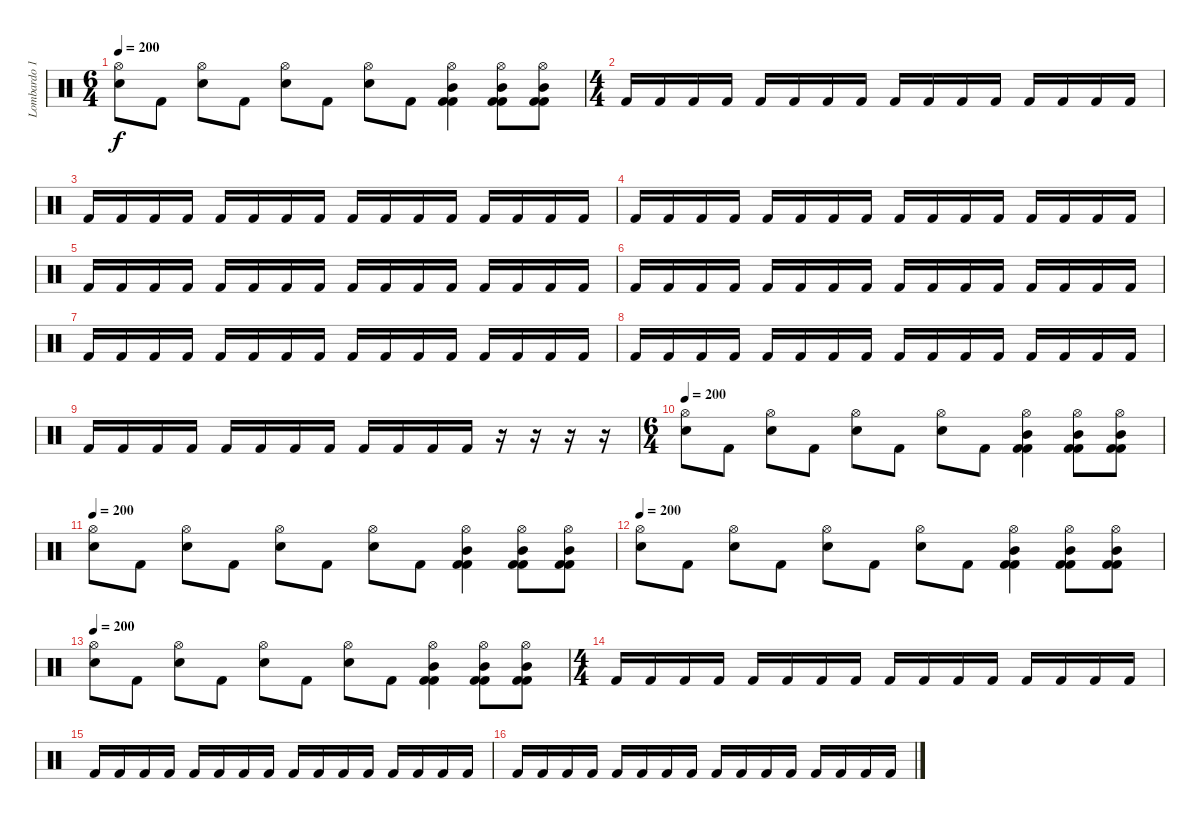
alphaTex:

\track ("Lombardo 1" "Lombardo 1") {instrument percussion}
\staff {score}
\articulation defaults
\ts (6 4)
\tempo 200
\clef neutral
\ks c
("Hi-Hat (open)" "Electric Snare (hit)").8{dy f} "Kick (hit) 2".8 ("Hi-Hat (open)" "Electric Snare (hit)").8 "Kick (hit) 2".8 ("Hi-Hat (open)" "Electric Snare (hit)").8 "Kick (hit) 2".8 ("Hi-Hat (open)" "Electric Snare (hit)").8 "Kick (hit) 2".8 ("Hi-Hat (open)" "Mid Tom (hit)" "Kick (hit) 2" "Kick (hit) 2").4 ("Hi-Hat (open)" "Mid Tom (hit)" "Kick (hit) 2" "Kick (hit) 2").8 ("Hi-Hat (open)" "Mid Tom (hit)" "Kick (hit) 2" "Kick (hit) 2").8 |
\ts (4 4)
"Kick (hit) 2".16 "Kick (hit) 2".16 "Kick (hit) 2".16 "Kick (hit) 2".16 "Kick (hit) 2".16 "Kick (hit) 2".16 "Kick (hit) 2".16 "Kick (hit) 2".16 "Kick (hit) 2".16 "Kick (hit) 2".16 "Kick (hit) 2".16 "Kick (hit) 2".16 "Kick (hit) 2".16 "Kick (hit) 2".16 "Kick (hit) 2".16 "Kick (hit) 2".16 |
"Kick (hit) 2".16 "Kick (hit) 2".16 "Kick (hit) 2".16 "Kick (hit) 2".16 "Kick (hit) 2".16 "Kick (hit) 2".16 "Kick (hit) 2".16 "Kick (hit) 2".16 "Kick (hit) 2".16 "Kick (hit) 2".16 "Kick (hit) 2".16 "Kick (hit) 2".16 "Kick (hit) 2".16 "Kick (hit) 2".16 "Kick (hit) 2".16 "Kick (hit) 2".16 |
"Kick (hit) 2".16 "Kick (hit) 2".16 "Kick (hit) 2".16 "Kick (hit) 2".16 "Kick (hit) 2".16 "Kick (hit) 2".16 "Kick (hit) 2".16 "Kick (hit) 2".16 "Kick (hit) 2".16 "Kick (hit) 2".16 "Kick (hit) 2".16 "Kick (hit) 2".16 "Kick (hit) 2".16 "Kick (hit) 2".16 "Kick (hit) 2".16 "Kick (hit) 2".16 |
"Kick (hit) 2".16 "Kick (hit) 2".16 "Kick (hit) 2".16 "Kick (hit) 2".16 "Kick (hit) 2".16 "Kick (hit) 2".16 "Kick (hit) 2".16 "Kick (hit) 2".16 "Kick (hit) 2".16 "Kick (hit) 2".16 "Kick (hit) 2".16 "Kick (hit) 2".16 "Kick (hit) 2".16 "Kick (hit) 2".16 "Kick (hit) 2".16 "Kick (hit) 2".16 |
"Kick (hit) 2".16 "Kick (hit) 2".16 "Kick (hit) 2".16 "Kick (hit) 2".16 "Kick (hit) 2".16 "Kick (hit) 2".16 "Kick (hit) 2".16 "Kick (hit) 2".16 "Kick (hit) 2".16 "Kick (hit) 2".16 "Kick (hit) 2".16 "Kick (hit) 2".16 "Kick (hit) 2".16 "Kick (hit) 2".16 "Kick (hit) 2".16 "Kick (hit) 2".16 |
"Kick (hit) 2".16 "Kick (hit) 2".16 "Kick (hit) 2".16 "Kick (hit) 2".16 "Kick (hit) 2".16 "Kick (hit) 2".16 "Kick (hit) 2".16 "Kick (hit) 2".16 "Kick (hit) 2".16 "Kick (hit) 2".16 "Kick (hit) 2".16 "Kick (hit) 2".16 "Kick (hit) 2".16 "Kick (hit) 2".16 "Kick (hit) 2".16 "Kick (hit) 2".16 |
"Kick (hit) 2".16 "Kick (hit) 2".16 "Kick (hit) 2".16 "Kick (hit) 2".16 "Kick (hit) 2".16 "Kick (hit) 2".16 "Kick (hit) 2".16 "Kick (hit) 2".16 "Kick (hit) 2".16 "Kick (hit) 2".16 "Kick (hit) 2".16 "Kick (hit) 2".16 "Kick (hit) 2".16 "Kick (hit) 2".16 "Kick (hit) 2".16 "Kick (hit) 2".16 |
"Kick (hit) 2".16 "Kick (hit) 2".16 "Kick (hit) 2".16 "Kick (hit) 2".16 "Kick (hit) 2".16 "Kick (hit) 2".16 "Kick (hit) 2".16 "Kick (hit) 2".16 "Kick (hit) 2".16 "Kick (hit) 2".16 "Kick (hit) 2".16 "Kick (hit) 2".16 r.16 r.16 r.16 r.16 |
\ts (6 4)
\tempo 200
("Hi-Hat (open)" "Electric Snare (hit)").8 "Kick (hit) 2".8 ("Hi-Hat (open)" "Electric Snare (hit)").8 "Kick (hit) 2".8 ("Hi-Hat (open)" "Electric Snare (hit)").8 "Kick (hit) 2".8 ("Hi-Hat (open)" "Electric Snare (hit)").8 "Kick (hit) 2".8 ("Hi-Hat (open)" "Mid Tom (hit)" "Kick (hit) 2" "Kick (hit) 2").4 ("Hi-Hat (open)" "Mid Tom (hit)" "Kick (hit) 2" "Kick (hit) 2").8 ("Hi-Hat (open)" "Mid Tom (hit)" "Kick (hit) 2" "Kick (hit) 2").8 |
\tempo 200
("Hi-Hat (open)" "Electric Snare (hit)").8 "Kick (hit) 2".8 ("Hi-Hat (open)" "Electric Snare (hit)").8 "Kick (hit) 2".8 ("Hi-Hat (open)" "Electric Snare (hit)").8 "Kick (hit) 2".8 ("Hi-Hat (open)" "Electric Snare (hit)").8 "Kick (hit) 2".8 ("Hi-Hat (open)" "Mid Tom (hit)" "Kick (hit) 2" "Kick (hit) 2").4 ("Hi-Hat (open)" "Mid Tom (hit)" "Kick (hit) 2" "Kick (hit) 2").8 ("Hi-Hat (open)" "Mid Tom (hit)" "Kick (hit) 2" "Kick (hit) 2").8 |
\tempo 200
("Hi-Hat (open)" "Electric Snare (hit)").8 "Kick (hit) 2".8 ("Hi-Hat (open)" "Electric Snare (hit)").8 "Kick (hit) 2".8 ("Hi-Hat (open)" "Electric Snare (hit)").8 "Kick (hit) 2".8 ("Hi-Hat (open)" "Electric Snare (hit)").8 "Kick (hit) 2".8 ("Hi-Hat (open)" "Mid Tom (hit)" "Kick (hit) 2" "Kick (hit) 2").4 ("Hi-Hat (open)" "Mid Tom (hit)" "Kick (hit) 2" "Kick (hit) 2").8 ("Hi-Hat (open)" "Mid Tom (hit)" "Kick (hit) 2" "Kick (hit) 2").8 |
\tempo 200
("Hi-Hat (open)" "Electric Snare (hit)").8 "Kick (hit) 2".8 ("Hi-Hat (open)" "Electric Snare (hit)").8 "Kick (hit) 2".8 ("Hi-Hat (open)" "Electric Snare (hit)").8 "Kick (hit) 2".8 ("Hi-Hat (open)" "Electric Snare (hit)").8 "Kick (hit) 2".8 ("Hi-Hat (open)" "Mid Tom (hit)" "Kick (hit) 2" "Kick (hit) 2").4 ("Hi-Hat (open)" "Mid Tom (hit)" "Kick (hit) 2" "Kick (hit) 2").8 ("Hi-Hat (open)" "Mid Tom (hit)" "Kick (hit) 2" "Kick (hit) 2").8 |
\ts (4 4)
"Kick (hit) 2".16 "Kick (hit) 2".16 "Kick (hit) 2".16 "Kick (hit) 2".16 "Kick (hit) 2".16 "Kick (hit) 2".16 "Kick (hit) 2".16 "Kick (hit) 2".16 "Kick (hit) 2".16 "Kick (hit) 2".16 "Kick (hit) 2".16 "Kick (hit) 2".16 "Kick (hit) 2".16 "Kick (hit) 2".16 "Kick (hit) 2".16 "Kick (hit) 2".16 |
"Kick (hit) 2".16 "Kick (hit) 2".16 "Kick (hit) 2".16 "Kick (hit) 2".16 "Kick (hit) 2".16 "Kick (hit) 2".16 "Kick (hit) 2".16 "Kick (hit) 2".16 "Kick (hit) 2".16 "Kick (hit) 2".16 "Kick (hit) 2".16 "Kick (hit) 2".16 "Kick (hit) 2".16 "Kick (hit) 2".16 "Kick (hit) 2".16 "Kick (hit) 2".16 |
"Kick (hit) 2".16 "Kick (hit) 2".16 "Kick (hit) 2".16 "Kick (hit) 2".16 "Kick (hit) 2".16 "Kick (hit) 2".16 "Kick (hit) 2".16 "Kick (hit) 2".16 "Kick (hit) 2".16 "Kick (hit) 2".16 "Kick (hit) 2".16 "Kick (hit) 2".16 "Kick (hit) 2".16 "Kick (hit) 2".16 "Kick (hit) 2".16 "Kick (hit) 2".16
